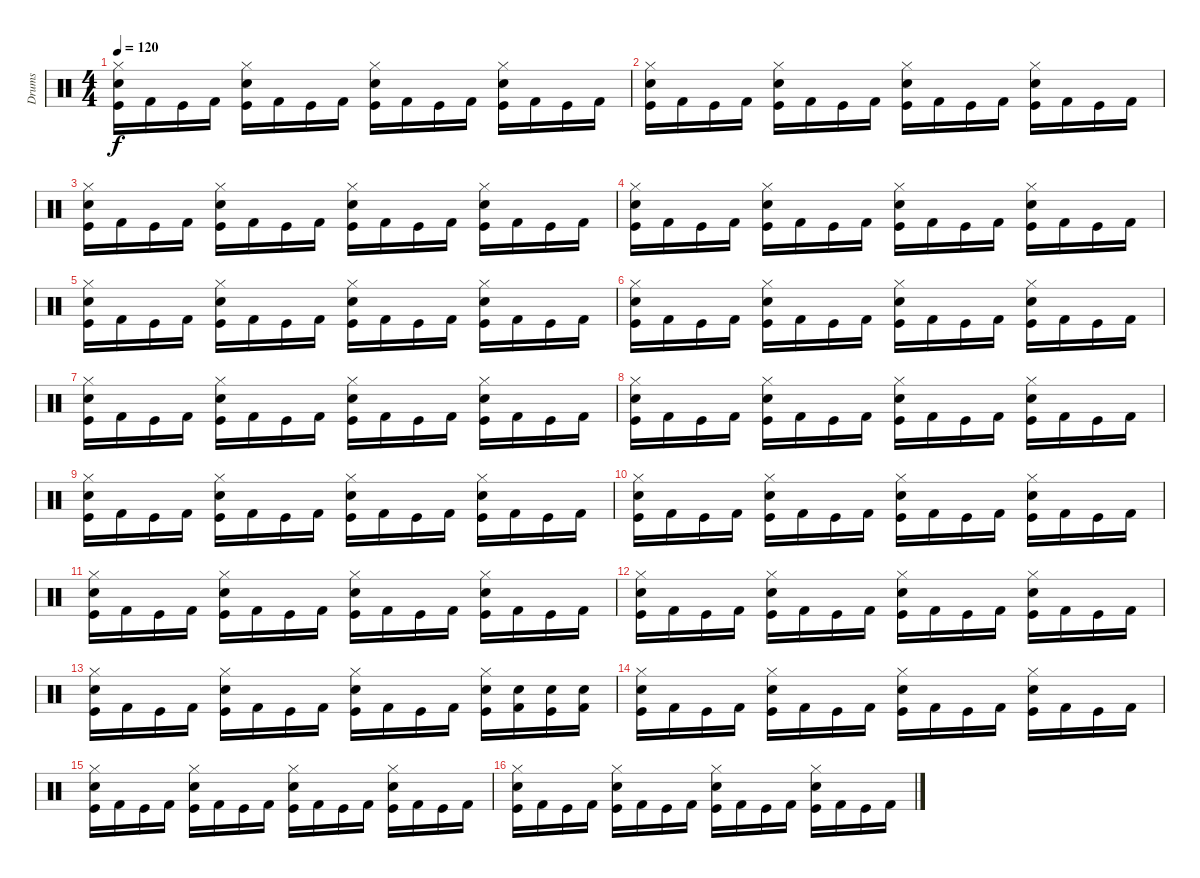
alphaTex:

\track ("Drums" "Drums") {instrument percussion}
\staff {score}
\articulation defaults
\ts (4 4)
\tempo 120
\clef neutral
\ks c
("Hi-Hat (closed)" "Snare (hit) 2" "Kick (hit)").16{dy f} "Kick (hit) 2".16 "Kick (hit)".16 "Kick (hit) 2".16 ("Hi-Hat (closed)" "Snare (hit) 2" "Kick (hit)").16 "Kick (hit) 2".16 "Kick (hit)".16 "Kick (hit) 2".16 ("Hi-Hat (closed)" "Snare (hit) 2" "Kick (hit)").16 "Kick (hit) 2".16 "Kick (hit)".16 "Kick (hit) 2".16 ("Hi-Hat (closed)" "Snare (hit) 2" "Kick (hit)").16 "Kick (hit) 2".16 "Kick (hit)".16 "Kick (hit) 2".16 |
("Hi-Hat (closed)" "Snare (hit) 2" "Kick (hit)").16 "Kick (hit) 2".16 "Kick (hit)".16 "Kick (hit) 2".16 ("Hi-Hat (closed)" "Snare (hit) 2" "Kick (hit)").16 "Kick (hit) 2".16 "Kick (hit)".16 "Kick (hit) 2".16 ("Hi-Hat (closed)" "Snare (hit) 2" "Kick (hit)").16 "Kick (hit) 2".16 "Kick (hit)".16 "Kick (hit) 2".16 ("Hi-Hat (closed)" "Snare (hit) 2" "Kick (hit)").16 "Kick (hit) 2".16 "Kick (hit)".16 "Kick (hit) 2".16 |
("Hi-Hat (closed)" "Snare (hit) 2" "Kick (hit)").16 "Kick (hit) 2".16 "Kick (hit)".16 "Kick (hit) 2".16 ("Hi-Hat (closed)" "Snare (hit) 2" "Kick (hit)").16 "Kick (hit) 2".16 "Kick (hit)".16 "Kick (hit) 2".16 ("Hi-Hat (closed)" "Snare (hit) 2" "Kick (hit)").16 "Kick (hit) 2".16 "Kick (hit)".16 "Kick (hit) 2".16 ("Hi-Hat (closed)" "Snare (hit) 2" "Kick (hit)").16 "Kick (hit) 2".16 "Kick (hit)".16 "Kick (hit) 2".16 |
("Hi-Hat (closed)" "Snare (hit) 2" "Kick (hit)").16 "Kick (hit) 2".16 "Kick (hit)".16 "Kick (hit) 2".16 ("Hi-Hat (closed)" "Snare (hit) 2" "Kick (hit)").16 "Kick (hit) 2".16 "Kick (hit)".16 "Kick (hit) 2".16 ("Hi-Hat (closed)" "Snare (hit) 2" "Kick (hit)").16 "Kick (hit) 2".16 "Kick (hit)".16 "Kick (hit) 2".16 ("Hi-Hat (closed)" "Snare (hit) 2" "Kick (hit)").16 "Kick (hit) 2".16 "Kick (hit)".16 "Kick (hit) 2".16 |
("Hi-Hat (closed)" "Snare (hit) 2" "Kick (hit)").16 "Kick (hit) 2".16 "Kick (hit)".16 "Kick (hit) 2".16 ("Hi-Hat (closed)" "Snare (hit) 2" "Kick (hit)").16 "Kick (hit) 2".16 "Kick (hit)".16 "Kick (hit) 2".16 ("Hi-Hat (closed)" "Snare (hit) 2" "Kick (hit)").16 "Kick (hit) 2".16 "Kick (hit)".16 "Kick (hit) 2".16 ("Hi-Hat (closed)" "Snare (hit) 2" "Kick (hit)").16 "Kick (hit) 2".16 "Kick (hit)".16 "Kick (hit) 2".16 |
("Hi-Hat (closed)" "Snare (hit) 2" "Kick (hit)").16 "Kick (hit) 2".16 "Kick (hit)".16 "Kick (hit) 2".16 ("Hi-Hat (closed)" "Snare (hit) 2" "Kick (hit)").16 "Kick (hit) 2".16 "Kick (hit)".16 "Kick (hit) 2".16 ("Hi-Hat (closed)" "Snare (hit) 2" "Kick (hit)").16 "Kick (hit) 2".16 "Kick (hit)".16 "Kick (hit) 2".16 ("Hi-Hat (closed)" "Snare (hit) 2" "Kick (hit)").16 "Kick (hit) 2".16 "Kick (hit)".16 "Kick (hit) 2".16 |
("Hi-Hat (closed)" "Snare (hit) 2" "Kick (hit)").16 "Kick (hit) 2".16 "Kick (hit)".16 "Kick (hit) 2".16 ("Hi-Hat (closed)" "Snare (hit) 2" "Kick (hit)").16 "Kick (hit) 2".16 "Kick (hit)".16 "Kick (hit) 2".16 ("Hi-Hat (closed)" "Snare (hit) 2" "Kick (hit)").16 "Kick (hit) 2".16 "Kick (hit)".16 "Kick (hit) 2".16 ("Hi-Hat (closed)" "Snare (hit) 2" "Kick (hit)").16 "Kick (hit) 2".16 "Kick (hit)".16 "Kick (hit) 2".16 |
("Hi-Hat (closed)" "Snare (hit) 2" "Kick (hit)").16 "Kick (hit) 2".16 "Kick (hit)".16 "Kick (hit) 2".16 ("Hi-Hat (closed)" "Snare (hit) 2" "Kick (hit)").16 "Kick (hit) 2".16 "Kick (hit)".16 "Kick (hit) 2".16 ("Hi-Hat (closed)" "Snare (hit) 2" "Kick (hit)").16 "Kick (hit) 2".16 "Kick (hit)".16 "Kick (hit) 2".16 ("Hi-Hat (closed)" "Snare (hit) 2" "Kick (hit)").16 "Kick (hit) 2".16 "Kick (hit)".16 "Kick (hit) 2".16 |
("Hi-Hat (closed)" "Snare (hit) 2" "Kick (hit)").16 "Kick (hit) 2".16 "Kick (hit)".16 "Kick (hit) 2".16 ("Hi-Hat (closed)" "Snare (hit) 2" "Kick (hit)").16 "Kick (hit) 2".16 "Kick (hit)".16 "Kick (hit) 2".16 ("Hi-Hat (closed)" "Snare (hit) 2" "Kick (hit)").16 "Kick (hit) 2".16 "Kick (hit)".16 "Kick (hit) 2".16 ("Hi-Hat (closed)" "Snare (hit) 2" "Kick (hit)").16 "Kick (hit) 2".16 "Kick (hit)".16 "Kick (hit) 2".16 |
("Hi-Hat (closed)" "Snare (hit) 2" "Kick (hit)").16 "Kick (hit) 2".16 "Kick (hit)".16 "Kick (hit) 2".16 ("Hi-Hat (closed)" "Snare (hit) 2" "Kick (hit)").16 "Kick (hit) 2".16 "Kick (hit)".16 "Kick (hit) 2".16 ("Hi-Hat (closed)" "Snare (hit) 2" "Kick (hit)").16 "Kick (hit) 2".16 "Kick (hit)".16 "Kick (hit) 2".16 ("Hi-Hat (closed)" "Snare (hit) 2" "Kick (hit)").16 "Kick (hit) 2".16 "Kick (hit)".16 "Kick (hit) 2".16 |
("Hi-Hat (closed)" "Snare (hit) 2" "Kick (hit)").16 "Kick (hit) 2".16 "Kick (hit)".16 "Kick (hit) 2".16 ("Hi-Hat (closed)" "Snare (hit) 2" "Kick (hit)").16 "Kick (hit) 2".16 "Kick (hit)".16 "Kick (hit) 2".16 ("Hi-Hat (closed)" "Snare (hit) 2" "Kick (hit)").16 "Kick (hit) 2".16 "Kick (hit)".16 "Kick (hit) 2".16 ("Hi-Hat (closed)" "Snare (hit) 2" "Kick (hit)").16 "Kick (hit) 2".16 "Kick (hit)".16 "Kick (hit) 2".16 |
("Hi-Hat (closed)" "Snare (hit) 2" "Kick (hit)").16 "Kick (hit) 2".16 "Kick (hit)".16 "Kick (hit) 2".16 ("Hi-Hat (closed)" "Snare (hit) 2" "Kick (hit)").16 "Kick (hit) 2".16 "Kick (hit)".16 "Kick (hit) 2".16 ("Hi-Hat (closed)" "Snare (hit) 2" "Kick (hit)").16 "Kick (hit) 2".16 "Kick (hit)".16 "Kick (hit) 2".16 ("Hi-Hat (closed)" "Snare (hit) 2" "Kick (hit)").16 "Kick (hit) 2".16 "Kick (hit)".16 "Kick (hit) 2".16 |
("Hi-Hat (closed)" "Snare (hit) 2" "Kick (hit)").16 "Kick (hit) 2".16 "Kick (hit)".16 "Kick (hit) 2".16 ("Hi-Hat (closed)" "Snare (hit) 2" "Kick (hit)").16 "Kick (hit) 2".16 "Kick (hit)".16 "Kick (hit) 2".16 ("Hi-Hat (closed)" "Snare (hit) 2" "Kick (hit)").16 "Kick (hit) 2".16 "Kick (hit)".16 "Kick (hit) 2".16 ("Hi-Hat (closed)" "Snare (hit) 2" "Kick (hit)").16 ("Snare (hit) 2" "Kick (hit) 2").16 ("Snare (hit) 2" "Kick (hit)").16 ("Snare (hit) 2" "Kick (hit) 2").16 |
("Hi-Hat (closed)" "Snare (hit) 2" "Kick (hit)").16 "Kick (hit) 2".16 "Kick (hit)".16 "Kick (hit) 2".16 ("Hi-Hat (closed)" "Snare (hit) 2" "Kick (hit)").16 "Kick (hit) 2".16 "Kick (hit)".16 "Kick (hit) 2".16 ("Hi-Hat (closed)" "Snare (hit) 2" "Kick (hit)").16 "Kick (hit) 2".16 "Kick (hit)".16 "Kick (hit) 2".16 ("Hi-Hat (closed)" "Snare (hit) 2" "Kick (hit)").16 "Kick (hit) 2".16 "Kick (hit)".16 "Kick (hit) 2".16 |
("Hi-Hat (closed)" "Snare (hit) 2" "Kick (hit)").16 "Kick (hit) 2".16 "Kick (hit)".16 "Kick (hit) 2".16 ("Hi-Hat (closed)" "Snare (hit) 2" "Kick (hit)").16 "Kick (hit) 2".16 "Kick (hit)".16 "Kick (hit) 2".16 ("Hi-Hat (closed)" "Snare (hit) 2" "Kick (hit)").16 "Kick (hit) 2".16 "Kick (hit)".16 "Kick (hit) 2".16 ("Hi-Hat (closed)" "Snare (hit) 2" "Kick (hit)").16 "Kick (hit) 2".16 "Kick (hit)".16 "Kick (hit) 2".16 |
("Hi-Hat (closed)" "Snare (hit) 2" "Kick (hit)").16 "Kick (hit) 2".16 "Kick (hit)".16 "Kick (hit) 2".16 ("Hi-Hat (closed)" "Snare (hit) 2" "Kick (hit)").16 "Kick (hit) 2".16 "Kick (hit)".16 "Kick (hit) 2".16 ("Hi-Hat (closed)" "Snare (hit) 2" "Kick (hit)").16 "Kick (hit) 2".16 "Kick (hit)".16 "Kick (hit) 2".16 ("Hi-Hat (closed)" "Snare (hit) 2" "Kick (hit)").16 "Kick (hit) 2".16 "Kick (hit)".16 "Kick (hit) 2".16
